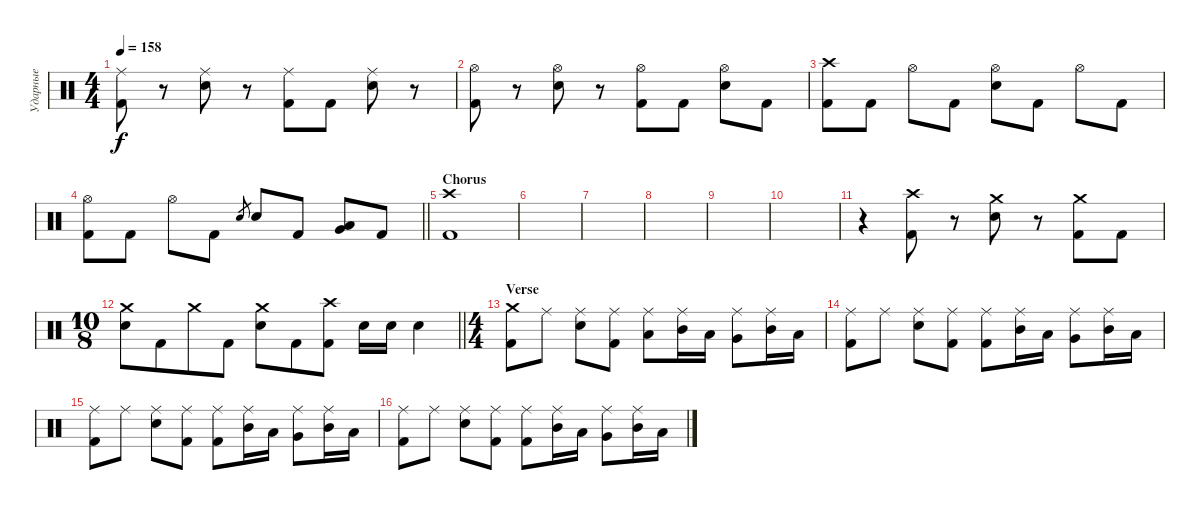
\track ("Ударные" "Ударные") {instrument percussion}
\staff {score}
\articulation defaults
\ts (4 4)
\tempo 158
\clef neutral
\ks c
("Ride (middle)" "Kick (hit) 2").8{dy f} r.8 ("Ride (middle)" "Electric Snare (hit)").8 r.8 ("Ride (middle)" "Kick (hit) 2").8 "Kick (hit) 2".8 ("Ride (middle)" "Electric Snare (hit)").8 r.8 |
("Hi-Hat (open)" "Kick (hit) 2").8 r.8 ("Hi-Hat (open)" "Electric Snare (hit)").8 r.8 ("Hi-Hat (open)" "Kick (hit) 2").8 "Kick (hit) 2".8 ("Hi-Hat (open)" "Electric Snare (hit)").8 "Kick (hit) 2".8 |
("Crash high (hit)" "Kick (hit) 2").8 "Kick (hit) 2".8 "Hi-Hat (open)".8 "Kick (hit) 2".8 ("Hi-Hat (open)" "Electric Snare (hit)").8 "Kick (hit) 2".8 "Hi-Hat (open)".8 "Kick (hit) 2".8 |
\barLineRight lightlight
("Hi-Hat (open)" "Kick (hit) 2").8 "Kick (hit) 2".8 "Hi-Hat (open)".8 "Kick (hit) 2".8 "Electric Snare (hit)".8{gr} "Electric Snare (hit)".8 "Kick (hit) 2".8 ("Low Tom (hit)" "Very Low Tom (hit)").8 "Kick (hit) 2".8 |
\section ("" "Chorus")
("Crash high (hit)" "Kick (hit) 2").1 |
|
|
|
|
|
r.4 ("Crash high (hit)" "Kick (hit) 2").8 r.8 ("Crash medium (hit)" "Electric Snare (hit)").8 r.8 ("Crash medium (hit)" "Kick (hit) 2").8 "Kick (hit) 2".8 |
\ts (10 8)
\barLineRight lightlight
("Crash medium (hit)" "Electric Snare (hit)").8 "Kick (hit) 2".8 "Crash medium (hit)".8 "Kick (hit) 2".8 ("Crash medium (hit)" "Electric Snare (hit)").8 "Kick (hit) 2".8 ("Crash high (hit)" "Kick (hit) 2").8 "Electric Snare (hit)".16 "Electric Snare (hit)".16 "Electric Snare (hit)".4 |
\ts (4 4)
\section ("" "Verse")
("Crash medium (hit)" "Kick (hit) 2").8 "Ride (middle)".8 ("Ride (middle)" "Electric Snare (hit)").8 ("Ride (middle)" "Kick (hit) 2").8 ("Ride (middle)" "Low Tom (hit)").8 ("Ride (middle)" "Mid Tom (hit)").16 "Low Tom (hit)".16 ("Ride (middle)" "Very Low Tom (hit)").8 ("Ride (middle)" "Mid Tom (hit)").16 "Low Tom (hit)".16 |
("Ride (middle)" "Kick (hit) 2").8 "Ride (middle)".8 ("Ride (middle)" "Electric Snare (hit)").8 ("Ride (middle)" "Kick (hit) 2").8 ("Ride (middle)" "Kick (hit) 2").8 ("Ride (middle)" "Mid Tom (hit)").16 "Low Tom (hit)".16 ("Ride (middle)" "Very Low Tom (hit)").8 ("Ride (middle)" "Mid Tom (hit)").16 "Low Tom (hit)".16 |
("Ride (middle)" "Kick (hit) 2").8 "Ride (middle)".8 ("Ride (middle)" "Electric Snare (hit)").8 ("Ride (middle)" "Kick (hit) 2").8 ("Ride (middle)" "Kick (hit) 2").8 ("Ride (middle)" "Mid Tom (hit)").16 "Low Tom (hit)".16 ("Ride (middle)" "Very Low Tom (hit)").8 ("Ride (middle)" "Mid Tom (hit)").16 "Low Tom (hit)".16 |
("Ride (middle)" "Kick (hit) 2").8 "Ride (middle)".8 ("Ride (middle)" "Electric Snare (hit)").8 ("Ride (middle)" "Kick (hit) 2").8 ("Ride (middle)" "Kick (hit) 2").8 ("Ride (middle)" "Mid Tom (hit)").16 "Low Tom (hit)".16 ("Ride (middle)" "Very Low Tom (hit)").8 ("Ride (middle)" "Mid Tom (hit)").16 "Low Tom (hit)".16
